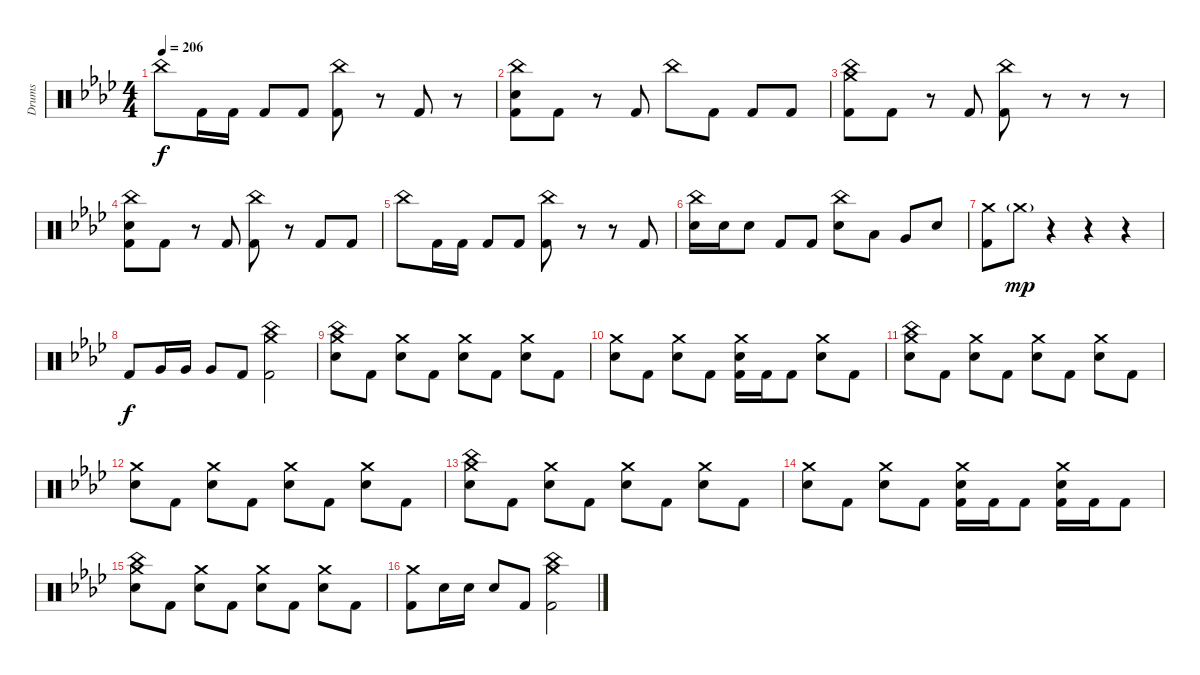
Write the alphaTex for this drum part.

\track ("Drums" "Drums") {instrument percussion}
\staff {score}
\articulation defaults
\ts (4 4)
\tempo 206
\clef neutral
\ks fminor "China (hit)".8{dy f} "Kick (hit) 2".16 "Kick (hit) 2".16 "Kick (hit) 2".8 "Kick (hit) 2".8
("China (hit)" "Kick (hit) 2").8 r.8 "Kick (hit) 2".8 r.8 |
("China (hit)" "Electric Snare (hit)" "Kick (hit) 2").8 "Kick (hit) 2".8 r.8 "Kick (hit) 2".8 "China (hit)".8 "Kick (hit) 2".8 "Kick (hit) 2".8 "Kick (hit) 2".8 |
("Crash medium (hit)" "China (hit)" "Kick (hit) 2").8 "Kick (hit) 2".8 r.8 "Kick (hit) 2".8 ("China (hit)" "Kick (hit) 2").8 r.8 r.8 r.8 |
("China (hit)" "Electric Snare (hit)" "Kick (hit) 2").8 "Kick (hit) 2".8 r.8 "Kick (hit) 2".8 ("China (hit)" "Kick (hit) 2").8 r.8 "Kick (hit) 2".8 "Kick (hit) 2".8 |
"China (hit)".8 "Kick (hit) 2".16 "Kick (hit) 2".16 "Kick (hit) 2".8 "Kick (hit) 2".8 ("China (hit)" "Kick (hit) 2").8 r.8 r.8 "Kick (hit) 2".8 |
("China (hit)" "Electric Snare (hit)").16 "Electric Snare (hit)".16 "Electric Snare (hit)".8 "Kick (hit) 2".8 "Kick (hit) 2".8 ("China (hit)" "Electric Snare (hit)").8 "Low Tom (hit)".8 "Very Low Tom (hit)".8 "Electric Snare (hit)".8 |
("Crash medium (hit)" "Kick (hit) 2").8 "Crash medium (hit)"{g}.8{dy mp} r.4 r.4 r.4 |
"Kick (hit) 2".8{dy f} "Very Low Tom (hit)".16 "Very Low Tom (hit)".16 "Very Low Tom (hit)".8 "Kick (hit) 2".8 ("Crash medium (hit)" "China (hit)" "Kick (hit) 2").2 |
("Crash medium (hit)" "China (hit)" "Electric Snare (hit)").8 "Kick (hit) 2".8 ("Crash medium (hit)" "Electric Snare (hit)").8 "Kick (hit) 2".8 ("Crash medium (hit)" "Electric Snare (hit)").8 "Kick (hit) 2".8 ("Crash medium (hit)" "Electric Snare (hit)").8 "Kick (hit) 2".8 |
("Crash medium (hit)" "Electric Snare (hit)").8 "Kick (hit) 2".8 ("Crash medium (hit)" "Electric Snare (hit)").8 "Kick (hit) 2".8 ("Crash medium (hit)" "Electric Snare (hit)" "Kick (hit) 2").16 "Kick (hit) 2".16 "Kick (hit) 2".8 ("Crash medium (hit)" "Electric Snare (hit)").8 "Kick (hit) 2".8 |
("Crash medium (hit)" "China (hit)" "Electric Snare (hit)").8 "Kick (hit) 2".8 ("Crash medium (hit)" "Electric Snare (hit)").8 "Kick (hit) 2".8 ("Crash medium (hit)" "Electric Snare (hit)").8 "Kick (hit) 2".8 ("Crash medium (hit)" "Electric Snare (hit)").8 "Kick (hit) 2".8 |
("Crash medium (hit)" "Electric Snare (hit)").8 "Kick (hit) 2".8 ("Crash medium (hit)" "Electric Snare (hit)").8 "Kick (hit) 2".8 ("Crash medium (hit)" "Electric Snare (hit)").8 "Kick (hit) 2".8 ("Crash medium (hit)" "Electric Snare (hit)").8 "Kick (hit) 2".8 |
("Crash medium (hit)" "China (hit)" "Electric Snare (hit)").8 "Kick (hit) 2".8 ("Crash medium (hit)" "Electric Snare (hit)").8 "Kick (hit) 2".8 ("Crash medium (hit)" "Electric Snare (hit)").8 "Kick (hit) 2".8 ("Crash medium (hit)" "Electric Snare (hit)").8 "Kick (hit) 2".8 |
("Crash medium (hit)" "Electric Snare (hit)").8 "Kick (hit) 2".8 ("Crash medium (hit)" "Electric Snare (hit)").8 "Kick (hit) 2".8 ("Crash medium (hit)" "Electric Snare (hit)" "Kick (hit) 2").16 "Kick (hit) 2".16 "Kick (hit) 2".8 ("Crash medium (hit)" "Electric Snare (hit)" "Kick (hit) 2").16 "Kick (hit) 2".16 "Kick (hit) 2".8 |
("Crash medium (hit)" "China (hit)" "Electric Snare (hit)").8 "Kick (hit) 2".8 ("Crash medium (hit)" "Electric Snare (hit)").8 "Kick (hit) 2".8 ("Crash medium (hit)" "Electric Snare (hit)").8 "Kick (hit) 2".8 ("Crash medium (hit)" "Electric Snare (hit)").8 "Kick (hit) 2".8 |
("Crash medium (hit)" "Kick (hit) 2").8 "Electric Snare (hit)".16 "Electric Snare (hit)".16 "Electric Snare (hit)".8 "Kick (hit) 2".8 ("Crash medium (hit)" "China (hit)" "Kick (hit) 2").2
